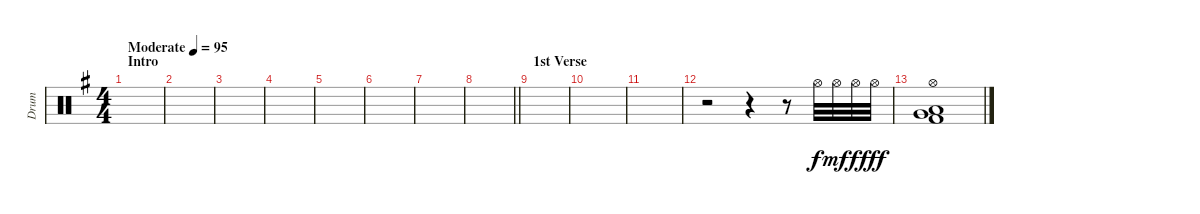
\track ("Drum" "Drum") {instrument percussion}
\staff {score}
\articulation defaults
\ts (4 4)
\section ("" "Intro")
\tempo (95 "Moderate")
\clef neutral
\ks g
|
|
|
|
|
|
|
\barLineRight lightlight
|
\section ("" "1st Verse")
|
|
|
r.2 r.4 r.8 "Hi-Hat (open)".32 "Hi-Hat (open)".32{dy mf} "Hi-Hat (open)".32{dy f} "Hi-Hat (open)".32{dy fff} |
("Hi-Hat (open)" "Very Low Tom (hit)" "Low Floor Tom (hit)" "Kick (hit) 2").1
